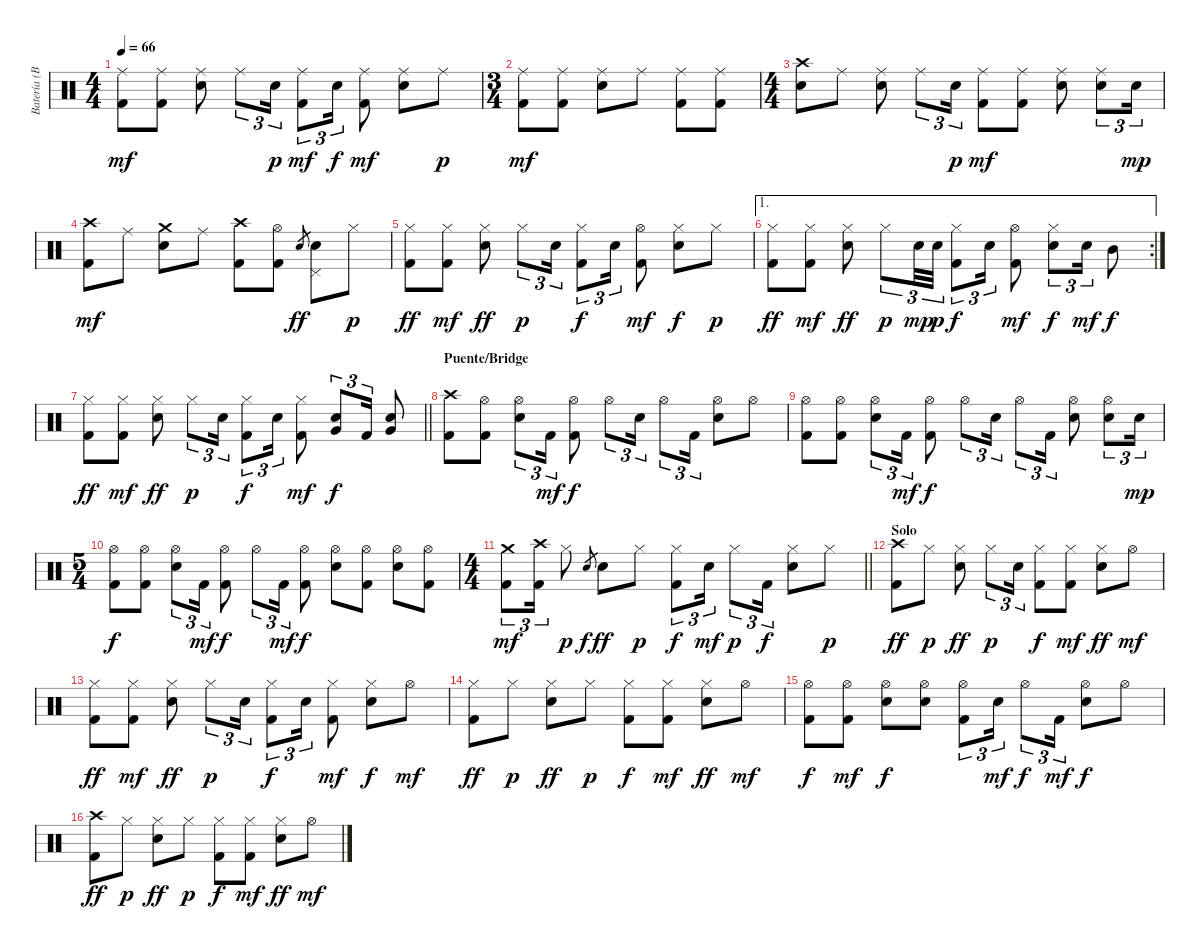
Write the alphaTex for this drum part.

\track ("Batería (Brit Turner)" "Batería (B") {instrument percussion}
\staff {score}
\articulation defaults
\ts (4 4)
\tempo 66
\clef neutral
\ks c
("Ride (middle)" "Kick (hit) 2").8{dy mf} ("Ride (middle)" "Kick (hit) 2").8 ("Ride (middle)" "Snare (hit) 2").8 "Ride (middle)".8{tu (3 2)} "Snare (hit) 2".16{tu (3 2) dy p} ("Ride (middle)" "Kick (hit) 2").8{tu (3 2) dy mf} "Snare (hit) 2".16{tu (3 2) dy f} ("Ride (middle)" "Kick (hit) 2").8{dy mf} ("Ride (middle)" "Snare (hit) 2").8 "Ride (middle)".8{dy p} |
\ts (3 4)
("Ride (middle)" "Kick (hit) 2").8{dy mf} ("Ride (middle)" "Kick (hit) 2").8 ("Ride (middle)" "Snare (hit) 2").8 "Ride (middle)".8 ("Ride (middle)" "Kick (hit) 2").8 ("Ride (middle)" "Kick (hit) 2").8 |
\ts (4 4)
("Crash high (hit)" "Snare (hit) 2").8 "Ride (middle)".8 ("Ride (middle)" "Snare (hit) 2").8 "Ride (middle)".8{tu (3 2)} "Snare (hit) 2".16{tu (3 2) dy p} ("Ride (middle)" "Kick (hit) 2").8{dy mf} ("Ride (middle)" "Kick (hit) 2").8 ("Ride (middle)" "Snare (hit) 2").8 ("Ride (middle)" "Snare (hit) 2").8{tu (3 2)} "Snare (hit) 2".16{tu (3 2) dy mp} |
("Crash high (hit)" "Kick (hit) 2").8{dy mf} "Ride (middle)".8 ("Crash medium (hit)" "Snare (hit) 2").8 "Ride (middle)".8 ("Crash high (hit)" "Kick (hit) 2").8 ("Hi-Hat (open)" "Kick (hit) 2").8 "Snare (hit) 2".8{gr dy ff} ("Pedal Hi-Hat (hit)" "Snare (hit) 2").8 "Hi-Hat (closed)".8{dy p} |
("Hi-Hat (closed)" "Kick (hit) 2").8{dy ff} ("Hi-Hat (closed)" "Kick (hit) 2").8{dy mf} ("Hi-Hat (closed)" "Snare (hit) 2").8{dy ff} "Hi-Hat (closed)".8{tu (3 2) dy p} "Snare (hit) 2".16{tu (3 2)} ("Hi-Hat (closed)" "Kick (hit) 2").8{tu (3 2) dy f} "Snare (hit) 2".16{tu (3 2)} ("Hi-Hat (open)" "Kick (hit) 2").8{dy mf} ("Hi-Hat (closed)" "Snare (hit) 2").8{dy f} "Hi-Hat (closed)".8{dy p} |
\ae 1
\rc 2
("Hi-Hat (closed)" "Kick (hit) 2").8{dy ff} ("Hi-Hat (closed)" "Kick (hit) 2").8{dy mf} ("Hi-Hat (closed)" "Snare (hit) 2").8{dy ff} "Hi-Hat (closed)".8{tu (3 2) dy p} "Snare (hit) 2".32{tu (3 2) dy mp} "Snare (hit) 2".32{tu (3 2) dy p} ("Hi-Hat (closed)" "Kick (hit) 2").8{tu (3 2) dy f} "Snare (hit) 2".16{tu (3 2)} ("Hi-Hat (open)" "Kick (hit) 2").8{dy mf} ("Hi-Hat (closed)" "Snare (hit) 2").8{tu (3 2) dy f} "Snare (hit) 2".16{tu (3 2) dy mf} "Mid Tom (hit)".8{dy f} |
\barLineRight lightlight
("Hi-Hat (closed)" "Kick (hit) 2").8{dy ff} ("Hi-Hat (closed)" "Kick (hit) 2").8{dy mf} ("Hi-Hat (closed)" "Snare (hit) 2").8{dy ff} "Hi-Hat (closed)".8{tu (3 2) dy p} "Snare (hit) 2".16{tu (3 2)} ("Hi-Hat (closed)" "Kick (hit) 2").8{tu (3 2) dy f} "Snare (hit) 2".16{tu (3 2)} ("Hi-Hat (closed)" "Kick (hit) 2").8{dy mf} ("Snare (hit) 2" "Very Low Tom (hit)").8{tu (3 2) dy f} "Kick (hit) 2".16{tu (3 2)} ("Snare (hit) 2" "Very Low Tom (hit)").8 |
\section ("" "Puente/Bridge")
("Crash high (hit)" "Kick (hit) 2").8 ("Hi-Hat (open)" "Kick (hit) 2").8 ("Hi-Hat (open)" "Snare (hit) 2").8{tu (3 2)} "Kick (hit) 2".16{tu (3 2) dy mf} ("Hi-Hat (open)" "Kick (hit) 2").8{dy f} "Hi-Hat (open)".8{tu (3 2)} "Snare (hit) 2".16{tu (3 2)} "Hi-Hat (open)".8{tu (3 2)} "Kick (hit) 2".16{tu (3 2)} ("Hi-Hat (open)" "Snare (hit) 2").8 "Hi-Hat (open)".8 |
("Hi-Hat (open)" "Kick (hit) 2").8 ("Hi-Hat (open)" "Kick (hit) 2").8 ("Hi-Hat (open)" "Snare (hit) 2").8{tu (3 2)} "Kick (hit) 2".16{tu (3 2) dy mf} ("Hi-Hat (open)" "Kick (hit) 2").8{dy f} "Hi-Hat (open)".8{tu (3 2)} "Snare (hit) 2".16{tu (3 2)} "Hi-Hat (open)".8{tu (3 2)} "Kick (hit) 2".16{tu (3 2)} ("Hi-Hat (open)" "Snare (hit) 2").8 ("Hi-Hat (open)" "Snare (hit) 2").8{tu (3 2)} "Snare (hit) 2".16{tu (3 2) dy mp} |
\ts (5 4)
("Hi-Hat (open)" "Kick (hit) 2").8{dy f} ("Hi-Hat (open)" "Kick (hit) 2").8 ("Hi-Hat (open)" "Snare (hit) 2").8{tu (3 2)} "Kick (hit) 2".16{tu (3 2) dy mf} ("Hi-Hat (open)" "Kick (hit) 2").8{dy f} "Hi-Hat (open)".8{tu (3 2)} "Kick (hit) 2".16{tu (3 2) dy mf} ("Hi-Hat (open)" "Kick (hit) 2").8{dy f} ("Hi-Hat (open)" "Snare (hit) 2").8 ("Hi-Hat (open)" "Kick (hit) 2").8 ("Hi-Hat (open)" "Snare (hit) 2").8 ("Hi-Hat (open)" "Kick (hit) 2").8 |
\ts (4 4)
\barLineRight lightlight
("Crash medium (hit)" "Kick (hit) 2").8{tu (3 2) dy mf} ("Crash high (hit)" "Kick (hit) 2").16{tu (3 2)} "Hi-Hat (closed)".8{dy p} "Snare (hit) 2".8{gr dy f} "Snare (hit) 2".8{dy ff} "Hi-Hat (closed)".8{dy p} ("Hi-Hat (closed)" "Kick (hit) 2").8{tu (3 2) dy f} "Snare (hit) 2".16{tu (3 2) dy mf} "Hi-Hat (closed)".8{tu (3 2) dy p} "Kick (hit) 2".16{tu (3 2) dy f} ("Hi-Hat (closed)" "Snare (hit) 2").8 "Hi-Hat (closed)".8{dy p} |
\section ("" "Solo")
("Crash high (hit)" "Kick (hit) 2").8{dy ff} "Hi-Hat (closed)".8{dy p} ("Hi-Hat (closed)" "Snare (hit) 2").8{dy ff} "Hi-Hat (closed)".8{tu (3 2) dy p} "Snare (hit) 2".16{tu (3 2)} ("Hi-Hat (closed)" "Kick (hit) 2").8{dy f} ("Hi-Hat (closed)" "Kick (hit) 2").8{dy mf} ("Hi-Hat (closed)" "Snare (hit) 2").8{dy ff} "Hi-Hat (open)".8{dy mf} |
("Hi-Hat (closed)" "Kick (hit) 2").8{dy ff} ("Hi-Hat (closed)" "Kick (hit) 2").8{dy mf} ("Hi-Hat (closed)" "Snare (hit) 2").8{dy ff} "Hi-Hat (closed)".8{tu (3 2) dy p} "Snare (hit) 2".16{tu (3 2)} ("Hi-Hat (closed)" "Kick (hit) 2").8{tu (3 2) dy f} "Snare (hit) 2".16{tu (3 2)} ("Hi-Hat (closed)" "Kick (hit) 2").8{dy mf} ("Hi-Hat (closed)" "Snare (hit) 2").8{dy f} "Hi-Hat (open)".8{dy mf} |
("Hi-Hat (closed)" "Kick (hit) 2").8{dy ff} "Hi-Hat (closed)".8{dy p} ("Hi-Hat (closed)" "Snare (hit) 2").8{dy ff} "Hi-Hat (closed)".8{dy p} ("Hi-Hat (closed)" "Kick (hit) 2").8{dy f} ("Hi-Hat (closed)" "Kick (hit) 2").8{dy mf} ("Hi-Hat (closed)" "Snare (hit) 2").8{dy ff} "Hi-Hat (open)".8{dy mf} |
("Hi-Hat (open)" "Kick (hit) 2").8{dy f} ("Hi-Hat (open)" "Kick (hit) 2").8{dy mf} ("Hi-Hat (open)" "Snare (hit) 2").8{dy f} ("Hi-Hat (open)" "Snare (hit) 2").8 ("Hi-Hat (open)" "Kick (hit) 2").8{tu (3 2)} "Snare (hit) 2".16{tu (3 2) dy mf} "Hi-Hat (open)".8{tu (3 2) dy f} "Kick (hit) 2".16{tu (3 2) dy mf} ("Hi-Hat (open)" "Snare (hit) 2").8{dy f} "Hi-Hat (open)".8 |
("Crash high (hit)" "Kick (hit) 2").8{dy ff} "Hi-Hat (closed)".8{dy p} ("Hi-Hat (closed)" "Snare (hit) 2").8{dy ff} "Hi-Hat (closed)".8{dy p} ("Hi-Hat (closed)" "Kick (hit) 2").8{dy f} ("Hi-Hat (closed)" "Kick (hit) 2").8{dy mf} ("Hi-Hat (closed)" "Snare (hit) 2").8{dy ff} "Hi-Hat (open)".8{dy mf}
